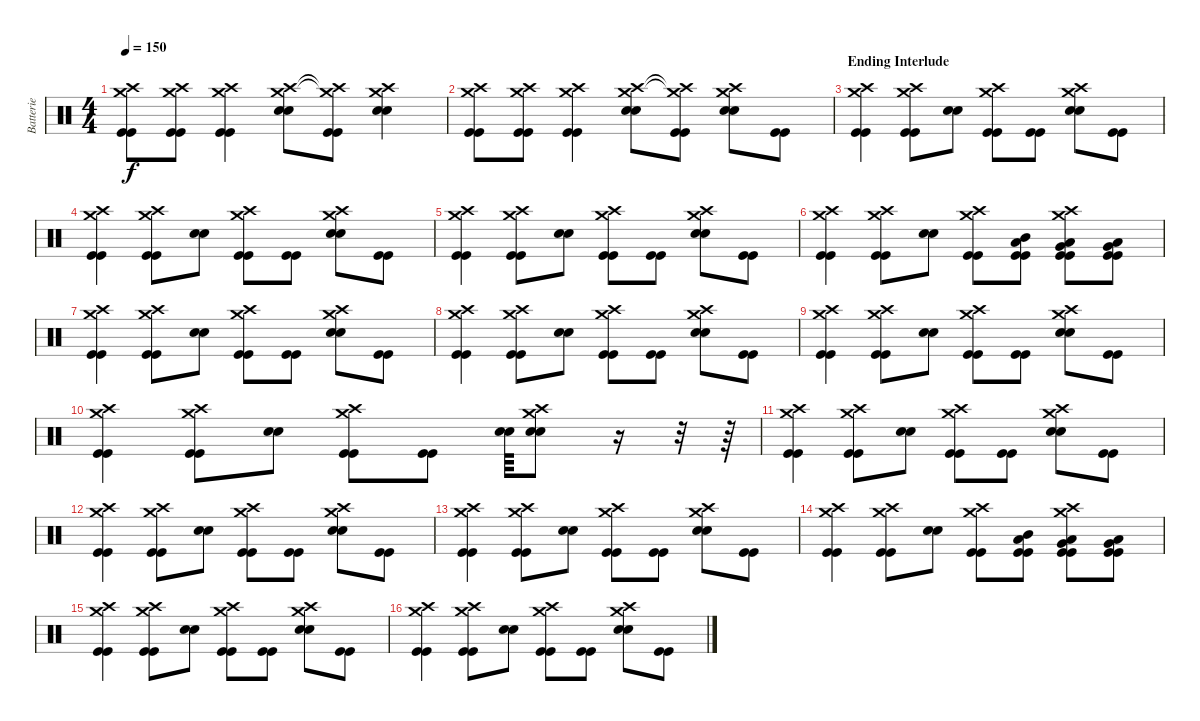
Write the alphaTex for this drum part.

\track ("Batterie" "Batterie") {instrument percussion}
\staff {score}
\articulation defaults
\ts (4 4)
\tempo 150
\clef neutral
\ks c
("Crash high (hit)" "Crash medium (hit)" "Kick (hit)" "Kick (hit)").8{dy f} ("Crash high (hit)" "Crash medium (hit)" "Kick (hit)" "Kick (hit)").8 ("Crash high (hit)" "Crash medium (hit)" "Kick (hit)" "Kick (hit)").4 ("Crash high (hit)" "Crash medium (hit)" "Electric Snare (hit)" "Electric Snare (hit)").8 ("Crash high (hit)"{t} "Crash medium (hit)"{t} "Kick (hit)" "Kick (hit)").8 ("Crash high (hit)" "Crash medium (hit)" "Electric Snare (hit)" "Electric Snare (hit)").4 |
("Crash high (hit)" "Crash medium (hit)" "Kick (hit)" "Kick (hit)").8 ("Crash high (hit)" "Crash medium (hit)" "Kick (hit)" "Kick (hit)").8 ("Crash high (hit)" "Crash medium (hit)" "Kick (hit)" "Kick (hit)").4 ("Crash high (hit)" "Crash medium (hit)" "Electric Snare (hit)" "Electric Snare (hit)").8 ("Crash high (hit)"{t} "Crash medium (hit)"{t} "Kick (hit)" "Kick (hit)").8 ("Crash high (hit)" "Crash medium (hit)" "Electric Snare (hit)" "Electric Snare (hit)").8 ("Kick (hit)" "Kick (hit)").8 |
\section ("" "Ending Interlude")
("Crash high (hit)" "Crash medium (hit)" "Kick (hit)" "Kick (hit)").4 ("Crash high (hit)" "Crash medium (hit)" "Kick (hit)" "Kick (hit)").8 ("Electric Snare (hit)" "Electric Snare (hit)").8 ("Crash high (hit)" "Crash medium (hit)" "Kick (hit)" "Kick (hit)").8 ("Kick (hit)" "Kick (hit)").8 ("Crash high (hit)" "Crash medium (hit)" "Electric Snare (hit)" "Electric Snare (hit)").8 ("Kick (hit)" "Kick (hit)").8 |
("Crash high (hit)" "Crash medium (hit)" "Kick (hit)" "Kick (hit)").4 ("Crash high (hit)" "Crash medium (hit)" "Kick (hit)" "Kick (hit)").8 ("Electric Snare (hit)" "Electric Snare (hit)").8 ("Crash high (hit)" "Crash medium (hit)" "Kick (hit)" "Kick (hit)").8 ("Kick (hit)" "Kick (hit)").8 ("Crash high (hit)" "Crash medium (hit)" "Electric Snare (hit)" "Electric Snare (hit)").8 ("Kick (hit)" "Kick (hit)").8 |
("Crash high (hit)" "Crash medium (hit)" "Kick (hit)" "Kick (hit)").4 ("Crash high (hit)" "Crash medium (hit)" "Kick (hit)" "Kick (hit)").8 ("Electric Snare (hit)" "Electric Snare (hit)").8 ("Crash high (hit)" "Crash medium (hit)" "Kick (hit)" "Kick (hit)").8 ("Kick (hit)" "Kick (hit)").8 ("Crash high (hit)" "Crash medium (hit)" "Electric Snare (hit)" "Electric Snare (hit)").8 ("Kick (hit)" "Kick (hit)").8 |
("Crash high (hit)" "Crash medium (hit)" "Kick (hit)" "Kick (hit)").4 ("Crash high (hit)" "Crash medium (hit)" "Kick (hit)" "Kick (hit)").8 ("Electric Snare (hit)" "Electric Snare (hit)").8 ("Crash high (hit)" "Crash medium (hit)" "Kick (hit)" "Kick (hit)").8 ("Mid Tom (hit)" "Low Floor Tom (hit)" "Kick (hit)" "Kick (hit)").8 ("Crash high (hit)" "Crash medium (hit)" "Very Low Tom (hit)" "Low Floor Tom (hit)" "Kick (hit)" "Kick (hit)").8 ("Very Low Tom (hit)" "Low Floor Tom (hit)" "Kick (hit)" "Kick (hit)").8 |
("Crash high (hit)" "Crash medium (hit)" "Kick (hit)" "Kick (hit)").4 ("Crash high (hit)" "Crash medium (hit)" "Kick (hit)" "Kick (hit)").8 ("Electric Snare (hit)" "Electric Snare (hit)").8 ("Crash high (hit)" "Crash medium (hit)" "Kick (hit)" "Kick (hit)").8 ("Kick (hit)" "Kick (hit)").8 ("Crash high (hit)" "Crash medium (hit)" "Electric Snare (hit)" "Electric Snare (hit)").8 ("Kick (hit)" "Kick (hit)").8 |
("Crash high (hit)" "Crash medium (hit)" "Kick (hit)" "Kick (hit)").4 ("Crash high (hit)" "Crash medium (hit)" "Kick (hit)" "Kick (hit)").8 ("Electric Snare (hit)" "Electric Snare (hit)").8 ("Crash high (hit)" "Crash medium (hit)" "Kick (hit)" "Kick (hit)").8 ("Kick (hit)" "Kick (hit)").8 ("Crash high (hit)" "Crash medium (hit)" "Electric Snare (hit)" "Electric Snare (hit)").8 ("Kick (hit)" "Kick (hit)").8 |
("Crash high (hit)" "Crash medium (hit)" "Kick (hit)" "Kick (hit)").4 ("Crash high (hit)" "Crash medium (hit)" "Kick (hit)" "Kick (hit)").8 ("Electric Snare (hit)" "Electric Snare (hit)").8 ("Crash high (hit)" "Crash medium (hit)" "Kick (hit)" "Kick (hit)").8 ("Kick (hit)" "Kick (hit)").8 ("Crash high (hit)" "Crash medium (hit)" "Electric Snare (hit)" "Electric Snare (hit)").8 ("Kick (hit)" "Kick (hit)").8 |
("Crash high (hit)" "Crash medium (hit)" "Kick (hit)" "Kick (hit)").4 ("Crash high (hit)" "Crash medium (hit)" "Kick (hit)" "Kick (hit)").8 ("Electric Snare (hit)" "Electric Snare (hit)").8 ("Crash high (hit)" "Crash medium (hit)" "Kick (hit)" "Kick (hit)").8 ("Kick (hit)" "Kick (hit)").8 ("Electric Snare (hit)" "Electric Snare (hit)").64 ("Crash high (hit)" "Crash medium (hit)" "Electric Snare (hit)" "Electric Snare (hit)").8 r.16 r.32 r.64 |
("Crash high (hit)" "Crash medium (hit)" "Kick (hit)" "Kick (hit)").4 ("Crash high (hit)" "Crash medium (hit)" "Kick (hit)" "Kick (hit)").8 ("Electric Snare (hit)" "Electric Snare (hit)").8 ("Crash high (hit)" "Crash medium (hit)" "Kick (hit)" "Kick (hit)").8 ("Kick (hit)" "Kick (hit)").8 ("Crash high (hit)" "Crash medium (hit)" "Electric Snare (hit)" "Electric Snare (hit)").8 ("Kick (hit)" "Kick (hit)").8 |
("Crash high (hit)" "Crash medium (hit)" "Kick (hit)" "Kick (hit)").4 ("Crash high (hit)" "Crash medium (hit)" "Kick (hit)" "Kick (hit)").8 ("Electric Snare (hit)" "Electric Snare (hit)").8 ("Crash high (hit)" "Crash medium (hit)" "Kick (hit)" "Kick (hit)").8 ("Kick (hit)" "Kick (hit)").8 ("Crash high (hit)" "Crash medium (hit)" "Electric Snare (hit)" "Electric Snare (hit)").8 ("Kick (hit)" "Kick (hit)").8 |
("Crash high (hit)" "Crash medium (hit)" "Kick (hit)" "Kick (hit)").4 ("Crash high (hit)" "Crash medium (hit)" "Kick (hit)" "Kick (hit)").8 ("Electric Snare (hit)" "Electric Snare (hit)").8 ("Crash high (hit)" "Crash medium (hit)" "Kick (hit)" "Kick (hit)").8 ("Kick (hit)" "Kick (hit)").8 ("Crash high (hit)" "Crash medium (hit)" "Electric Snare (hit)" "Electric Snare (hit)").8 ("Kick (hit)" "Kick (hit)").8 |
("Crash high (hit)" "Crash medium (hit)" "Kick (hit)" "Kick (hit)").4 ("Crash high (hit)" "Crash medium (hit)" "Kick (hit)" "Kick (hit)").8 ("Electric Snare (hit)" "Electric Snare (hit)").8 ("Crash high (hit)" "Crash medium (hit)" "Kick (hit)" "Kick (hit)").8 ("Mid Tom (hit)" "Low Floor Tom (hit)" "Kick (hit)" "Kick (hit)").8 ("Crash high (hit)" "Crash medium (hit)" "Very Low Tom (hit)" "Low Floor Tom (hit)" "Kick (hit)" "Kick (hit)").8 ("Very Low Tom (hit)" "Low Floor Tom (hit)" "Kick (hit)" "Kick (hit)").8 |
("Crash high (hit)" "Crash medium (hit)" "Kick (hit)" "Kick (hit)").4 ("Crash high (hit)" "Crash medium (hit)" "Kick (hit)" "Kick (hit)").8 ("Electric Snare (hit)" "Electric Snare (hit)").8 ("Crash high (hit)" "Crash medium (hit)" "Kick (hit)" "Kick (hit)").8 ("Kick (hit)" "Kick (hit)").8 ("Crash high (hit)" "Crash medium (hit)" "Electric Snare (hit)" "Electric Snare (hit)").8 ("Kick (hit)" "Kick (hit)").8 |
("Crash high (hit)" "Crash medium (hit)" "Kick (hit)" "Kick (hit)").4 ("Crash high (hit)" "Crash medium (hit)" "Kick (hit)" "Kick (hit)").8 ("Electric Snare (hit)" "Electric Snare (hit)").8 ("Crash high (hit)" "Crash medium (hit)" "Kick (hit)" "Kick (hit)").8 ("Kick (hit)" "Kick (hit)").8 ("Crash high (hit)" "Crash medium (hit)" "Electric Snare (hit)" "Electric Snare (hit)").8 ("Kick (hit)" "Kick (hit)").8
